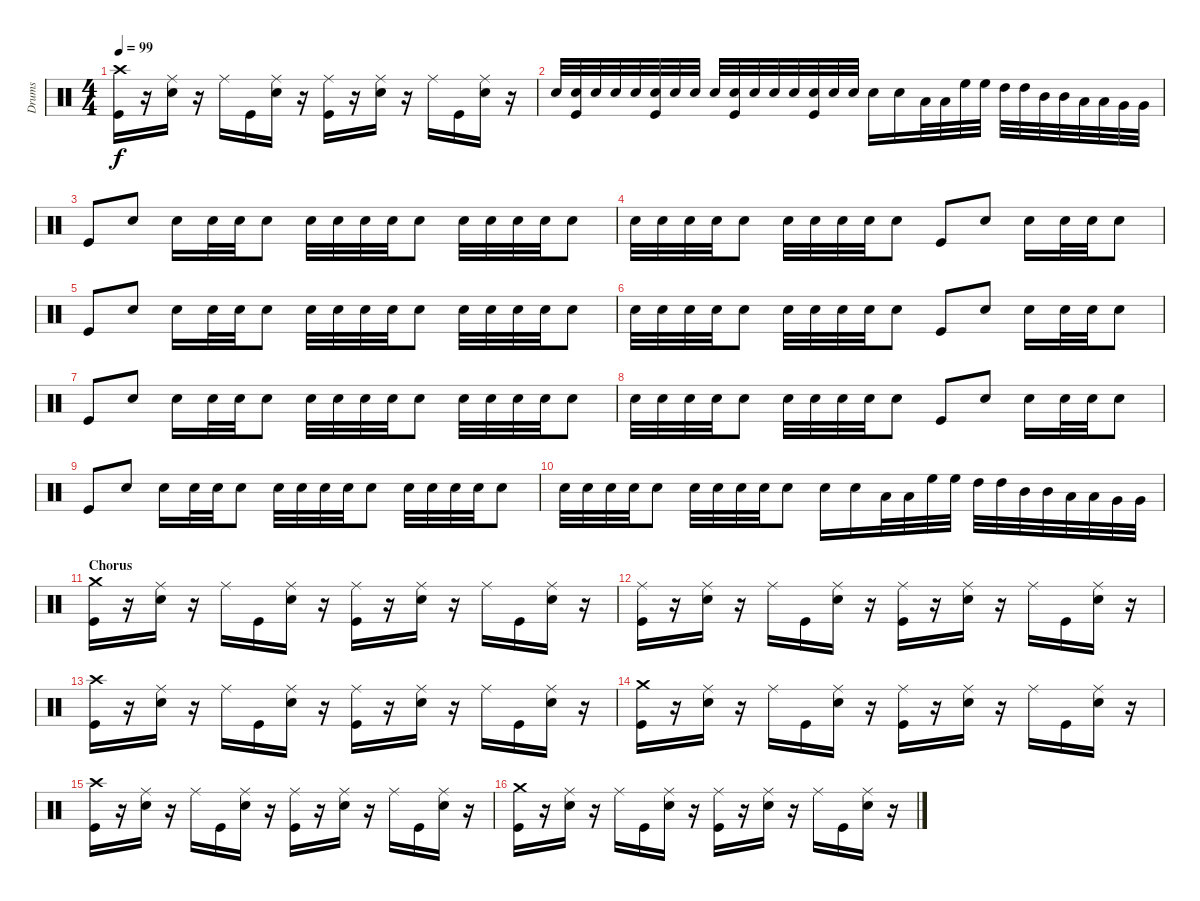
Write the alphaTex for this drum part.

\track ("Drums" "Drums") {instrument percussion}
\staff {score}
\articulation defaults
\ts (4 4)
\tempo 99
\clef neutral
\ks c
("Crash high (hit)" "Kick (hit)").16{dy f} r.16 ("Ride (middle)" "Electric Snare (hit)").16 r.16 "Ride (middle)".16 "Kick (hit)".16 ("Ride (middle)" "Electric Snare (hit)").16 r.16 ("Ride (middle)" "Kick (hit)").16 r.16 ("Ride (middle)" "Electric Snare (hit)").16 r.16 "Ride (middle)".16 "Kick (hit)".16 ("Ride (middle)" "Electric Snare (hit)").16 r.16 |
"Electric Snare (hit)".32 ("Electric Snare (hit)" "Kick (hit)").32 "Electric Snare (hit)".32 "Electric Snare (hit)".32 "Electric Snare (hit)".32 ("Electric Snare (hit)" "Kick (hit)").32 "Electric Snare (hit)".32 "Electric Snare (hit)".32 "Electric Snare (hit)".32 ("Electric Snare (hit)" "Kick (hit)").32 "Electric Snare (hit)".32 "Electric Snare (hit)".32 "Electric Snare (hit)".32 ("Electric Snare (hit)" "Kick (hit)").32 "Electric Snare (hit)".32 "Electric Snare (hit)".32 "Electric Snare (hit)".16 "Electric Snare (hit)".16 "Low Floor Tom (hit)".32 "Low Floor Tom (hit)".32 "High Floor Tom (hit)".32 "High Floor Tom (hit)".32 "High Tom (hit)".32 "High Tom (hit)".32 "Mid Tom (hit)".32 "Mid Tom (hit)".32 "Low Tom (hit)".32 "Low Tom (hit)".32 "Very Low Tom (hit)".32 "Very Low Tom (hit)".32 |
"Kick (hit)".8 "Electric Snare (hit)".8 "Electric Snare (hit)".16 "Electric Snare (hit)".32 "Electric Snare (hit)".32 "Electric Snare (hit)".8 "Electric Snare (hit)".32 "Electric Snare (hit)".32 "Electric Snare (hit)".32 "Electric Snare (hit)".32 "Electric Snare (hit)".8 "Electric Snare (hit)".32 "Electric Snare (hit)".32 "Electric Snare (hit)".32 "Electric Snare (hit)".32 "Electric Snare (hit)".8 |
"Electric Snare (hit)".32 "Electric Snare (hit)".32 "Electric Snare (hit)".32 "Electric Snare (hit)".32 "Electric Snare (hit)".8 "Electric Snare (hit)".32 "Electric Snare (hit)".32 "Electric Snare (hit)".32 "Electric Snare (hit)".32 "Electric Snare (hit)".8 "Kick (hit)".8 "Electric Snare (hit)".8 "Electric Snare (hit)".16 "Electric Snare (hit)".32 "Electric Snare (hit)".32 "Electric Snare (hit)".8 |
"Kick (hit)".8 "Electric Snare (hit)".8 "Electric Snare (hit)".16 "Electric Snare (hit)".32 "Electric Snare (hit)".32 "Electric Snare (hit)".8 "Electric Snare (hit)".32 "Electric Snare (hit)".32 "Electric Snare (hit)".32 "Electric Snare (hit)".32 "Electric Snare (hit)".8 "Electric Snare (hit)".32 "Electric Snare (hit)".32 "Electric Snare (hit)".32 "Electric Snare (hit)".32 "Electric Snare (hit)".8 |
"Electric Snare (hit)".32 "Electric Snare (hit)".32 "Electric Snare (hit)".32 "Electric Snare (hit)".32 "Electric Snare (hit)".8 "Electric Snare (hit)".32 "Electric Snare (hit)".32 "Electric Snare (hit)".32 "Electric Snare (hit)".32 "Electric Snare (hit)".8 "Kick (hit)".8 "Electric Snare (hit)".8 "Electric Snare (hit)".16 "Electric Snare (hit)".32 "Electric Snare (hit)".32 "Electric Snare (hit)".8 |
"Kick (hit)".8 "Electric Snare (hit)".8 "Electric Snare (hit)".16 "Electric Snare (hit)".32 "Electric Snare (hit)".32 "Electric Snare (hit)".8 "Electric Snare (hit)".32 "Electric Snare (hit)".32 "Electric Snare (hit)".32 "Electric Snare (hit)".32 "Electric Snare (hit)".8 "Electric Snare (hit)".32 "Electric Snare (hit)".32 "Electric Snare (hit)".32 "Electric Snare (hit)".32 "Electric Snare (hit)".8 |
"Electric Snare (hit)".32 "Electric Snare (hit)".32 "Electric Snare (hit)".32 "Electric Snare (hit)".32 "Electric Snare (hit)".8 "Electric Snare (hit)".32 "Electric Snare (hit)".32 "Electric Snare (hit)".32 "Electric Snare (hit)".32 "Electric Snare (hit)".8 "Kick (hit)".8 "Electric Snare (hit)".8 "Electric Snare (hit)".16 "Electric Snare (hit)".32 "Electric Snare (hit)".32 "Electric Snare (hit)".8 |
"Kick (hit)".8 "Electric Snare (hit)".8 "Electric Snare (hit)".16 "Electric Snare (hit)".32 "Electric Snare (hit)".32 "Electric Snare (hit)".8 "Electric Snare (hit)".32 "Electric Snare (hit)".32 "Electric Snare (hit)".32 "Electric Snare (hit)".32 "Electric Snare (hit)".8 "Electric Snare (hit)".32 "Electric Snare (hit)".32 "Electric Snare (hit)".32 "Electric Snare (hit)".32 "Electric Snare (hit)".8 |
"Electric Snare (hit)".32 "Electric Snare (hit)".32 "Electric Snare (hit)".32 "Electric Snare (hit)".32 "Electric Snare (hit)".8 "Electric Snare (hit)".32 "Electric Snare (hit)".32 "Electric Snare (hit)".32 "Electric Snare (hit)".32 "Electric Snare (hit)".8 "Electric Snare (hit)".16 "Electric Snare (hit)".16 "Low Floor Tom (hit)".32 "Low Floor Tom (hit)".32 "High Floor Tom (hit)".32 "High Floor Tom (hit)".32 "High Tom (hit)".32 "High Tom (hit)".32 "Mid Tom (hit)".32 "Mid Tom (hit)".32 "Low Tom (hit)".32 "Low Tom (hit)".32 "Very Low Tom (hit)".32 "Very Low Tom (hit)".32 |
\section ("" "Chorus")
("Crash medium (hit)" "Kick (hit)").16 r.16 ("Ride (middle)" "Electric Snare (hit)").16 r.16 "Ride (middle)".16 "Kick (hit)".16 ("Ride (middle)" "Electric Snare (hit)").16 r.16 ("Ride (middle)" "Kick (hit)").16 r.16 ("Ride (middle)" "Electric Snare (hit)").16 r.16 "Ride (middle)".16 "Kick (hit)".16 ("Ride (middle)" "Electric Snare (hit)").16 r.16 |
("Ride (middle)" "Kick (hit)").16 r.16 ("Ride (middle)" "Electric Snare (hit)").16 r.16 "Ride (middle)".16 "Kick (hit)".16 ("Ride (middle)" "Electric Snare (hit)").16 r.16 ("Ride (middle)" "Kick (hit)").16 r.16 ("Ride (middle)" "Electric Snare (hit)").16 r.16 "Ride (middle)".16 "Kick (hit)".16 ("Ride (middle)" "Electric Snare (hit)").16 r.16 |
("Crash high (hit)" "Kick (hit)").16 r.16 ("Ride (middle)" "Electric Snare (hit)").16 r.16 "Ride (middle)".16 "Kick (hit)".16 ("Ride (middle)" "Electric Snare (hit)").16 r.16 ("Ride (middle)" "Kick (hit)").16 r.16 ("Ride (middle)" "Electric Snare (hit)").16 r.16 "Ride (middle)".16 "Kick (hit)".16 ("Ride (middle)" "Electric Snare (hit)").16 r.16 |
("Crash medium (hit)" "Kick (hit)").16 r.16 ("Ride (middle)" "Electric Snare (hit)").16 r.16 "Ride (middle)".16 "Kick (hit)".16 ("Ride (middle)" "Electric Snare (hit)").16 r.16 ("Ride (middle)" "Kick (hit)").16 r.16 ("Ride (middle)" "Electric Snare (hit)").16 r.16 "Ride (middle)".16 "Kick (hit)".16 ("Ride (middle)" "Electric Snare (hit)").16 r.16 |
("Crash high (hit)" "Kick (hit)").16 r.16 ("Ride (middle)" "Electric Snare (hit)").16 r.16 "Ride (middle)".16 "Kick (hit)".16 ("Ride (middle)" "Electric Snare (hit)").16 r.16 ("Ride (middle)" "Kick (hit)").16 r.16 ("Ride (middle)" "Electric Snare (hit)").16 r.16 "Ride (middle)".16 "Kick (hit)".16 ("Ride (middle)" "Electric Snare (hit)").16 r.16 |
("Crash medium (hit)" "Kick (hit)").16 r.16 ("Ride (middle)" "Electric Snare (hit)").16 r.16 "Ride (middle)".16 "Kick (hit)".16 ("Ride (middle)" "Electric Snare (hit)").16 r.16 ("Ride (middle)" "Kick (hit)").16 r.16 ("Ride (middle)" "Electric Snare (hit)").16 r.16 "Ride (middle)".16 "Kick (hit)".16 ("Ride (middle)" "Electric Snare (hit)").16 r.16
